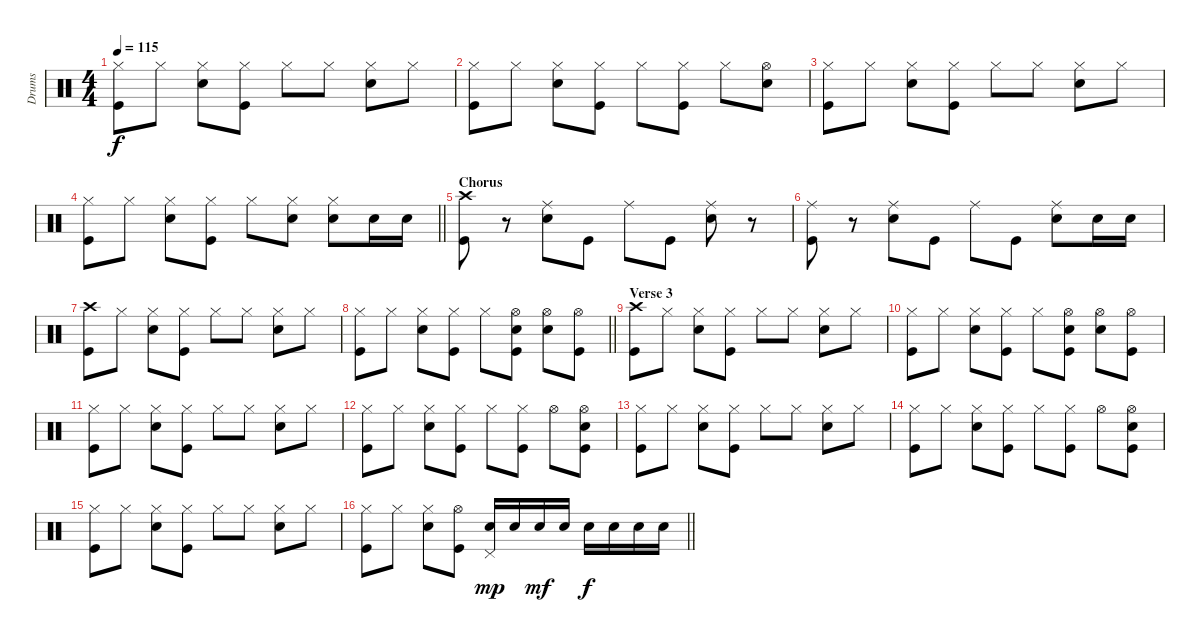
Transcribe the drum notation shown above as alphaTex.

\track ("Drums" "Drums") {instrument percussion}
\staff {score}
\articulation defaults
\ts (4 4)
\tempo 115
\clef neutral
\ks c
("Hi-Hat (closed)" "Kick (hit)").8{dy f} "Hi-Hat (closed)".8 ("Hi-Hat (closed)" "Snare (hit) 2").8 ("Hi-Hat (closed)" "Kick (hit)").8 "Hi-Hat (closed)".8 "Hi-Hat (closed)".8 ("Hi-Hat (closed)" "Snare (hit) 2").8 "Hi-Hat (closed)".8 |
("Hi-Hat (closed)" "Kick (hit)").8 "Hi-Hat (closed)".8 ("Hi-Hat (closed)" "Snare (hit) 2").8 ("Hi-Hat (closed)" "Kick (hit)").8 "Hi-Hat (closed)".8 ("Hi-Hat (closed)" "Kick (hit)").8 "Hi-Hat (closed)".8 ("Hi-Hat (open)" "Snare (hit) 2").8 |
("Hi-Hat (closed)" "Kick (hit)").8 "Hi-Hat (closed)".8 ("Hi-Hat (closed)" "Snare (hit) 2").8 ("Hi-Hat (closed)" "Kick (hit)").8 "Hi-Hat (closed)".8 "Hi-Hat (closed)".8 ("Hi-Hat (closed)" "Snare (hit) 2").8 "Hi-Hat (closed)".8 |
\barLineRight lightlight
("Hi-Hat (closed)" "Kick (hit)").8 "Hi-Hat (closed)".8 ("Hi-Hat (closed)" "Snare (hit) 2").8 ("Hi-Hat (closed)" "Kick (hit)").8 "Hi-Hat (closed)".8 ("Hi-Hat (closed)" "Snare (hit) 2").8 ("Hi-Hat (closed)" "Snare (hit) 2").8 "Snare (hit) 2".16 "Snare (hit) 2".16 |
\section ("" "Chorus")
("Crash high (hit)" "Kick (hit)").8 r.8 ("Ride (middle)" "Snare (hit) 2").8 "Kick (hit)".8 "Ride (middle)".8 "Kick (hit)".8 ("Ride (middle)" "Snare (hit) 2").8 r.8 |
("Ride (middle)" "Kick (hit)").8 r.8 ("Ride (middle)" "Snare (hit) 2").8 "Kick (hit)".8 "Ride (middle)".8 "Kick (hit)".8 ("Ride (middle)" "Snare (hit) 2").8 "Snare (hit) 2".16 "Snare (hit) 2".16 |
("Crash high (hit)" "Kick (hit)").8 "Hi-Hat (closed)".8 ("Hi-Hat (closed)" "Snare (hit) 2").8 ("Hi-Hat (closed)" "Kick (hit)").8 "Hi-Hat (closed)".8 "Hi-Hat (closed)".8 ("Hi-Hat (closed)" "Snare (hit) 2").8 "Hi-Hat (closed)".8 |
\barLineRight lightlight
("Hi-Hat (closed)" "Kick (hit)").8 "Hi-Hat (closed)".8 ("Hi-Hat (closed)" "Snare (hit) 2").8 ("Hi-Hat (closed)" "Kick (hit)").8 "Hi-Hat (closed)".8 ("Hi-Hat (open)" "Snare (hit) 2" "Kick (hit)").8 ("Hi-Hat (open)" "Snare (hit) 2").8 ("Hi-Hat (open)" "Kick (hit)").8 |
\section ("" "Verse 3")
("Crash high (hit)" "Kick (hit)").8 "Hi-Hat (closed)".8 ("Hi-Hat (closed)" "Snare (hit) 2").8 ("Hi-Hat (closed)" "Kick (hit)").8 "Hi-Hat (closed)".8 "Hi-Hat (closed)".8 ("Hi-Hat (closed)" "Snare (hit) 2").8 "Hi-Hat (closed)".8 |
("Hi-Hat (closed)" "Kick (hit)").8 "Hi-Hat (closed)".8 ("Hi-Hat (closed)" "Snare (hit) 2").8 ("Hi-Hat (closed)" "Kick (hit)").8 "Hi-Hat (closed)".8 ("Hi-Hat (open)" "Snare (hit) 2" "Kick (hit)").8 ("Hi-Hat (open)" "Snare (hit) 2").8 ("Hi-Hat (open)" "Kick (hit)").8 |
("Hi-Hat (closed)" "Kick (hit)").8 "Hi-Hat (closed)".8 ("Hi-Hat (closed)" "Snare (hit) 2").8 ("Hi-Hat (closed)" "Kick (hit)").8 "Hi-Hat (closed)".8 "Hi-Hat (closed)".8 ("Hi-Hat (closed)" "Snare (hit) 2").8 "Hi-Hat (closed)".8 |
("Hi-Hat (closed)" "Kick (hit)").8 "Hi-Hat (closed)".8 ("Hi-Hat (closed)" "Snare (hit) 2").8 ("Hi-Hat (closed)" "Kick (hit)").8 "Hi-Hat (closed)".8 ("Hi-Hat (closed)" "Kick (hit)").8 "Hi-Hat (open)".8 ("Hi-Hat (open)" "Snare (hit) 2" "Kick (hit)").8 |
("Hi-Hat (closed)" "Kick (hit)").8 "Hi-Hat (closed)".8 ("Hi-Hat (closed)" "Snare (hit) 2").8 ("Hi-Hat (closed)" "Kick (hit)").8 "Hi-Hat (closed)".8 "Hi-Hat (closed)".8 ("Hi-Hat (closed)" "Snare (hit) 2").8 "Hi-Hat (closed)".8 |
("Hi-Hat (closed)" "Kick (hit)").8 "Hi-Hat (closed)".8 ("Hi-Hat (closed)" "Snare (hit) 2").8 ("Hi-Hat (closed)" "Kick (hit)").8 "Hi-Hat (closed)".8 ("Hi-Hat (closed)" "Kick (hit)").8 "Hi-Hat (open)".8 ("Hi-Hat (open)" "Snare (hit) 2" "Kick (hit)").8 |
("Hi-Hat (closed)" "Kick (hit)").8 "Hi-Hat (closed)".8 ("Hi-Hat (closed)" "Snare (hit) 2").8 ("Hi-Hat (closed)" "Kick (hit)").8 "Hi-Hat (closed)".8 "Hi-Hat (closed)".8 ("Hi-Hat (closed)" "Snare (hit) 2").8 "Hi-Hat (closed)".8 |
\barLineRight lightlight
("Hi-Hat (closed)" "Kick (hit)").8 "Hi-Hat (closed)".8 ("Hi-Hat (closed)" "Snare (hit) 2").8 ("Hi-Hat (open)" "Kick (hit)").8 ("Pedal Hi-Hat (hit)" "Snare (hit) 2").16{dy mp} "Snare (hit) 2".16 "Snare (hit) 2".16{dy mf} "Snare (hit) 2".16 "Snare (hit) 2".16{dy f} "Snare (hit) 2".16 "Snare (hit) 2".16 "Snare (hit) 2".16
